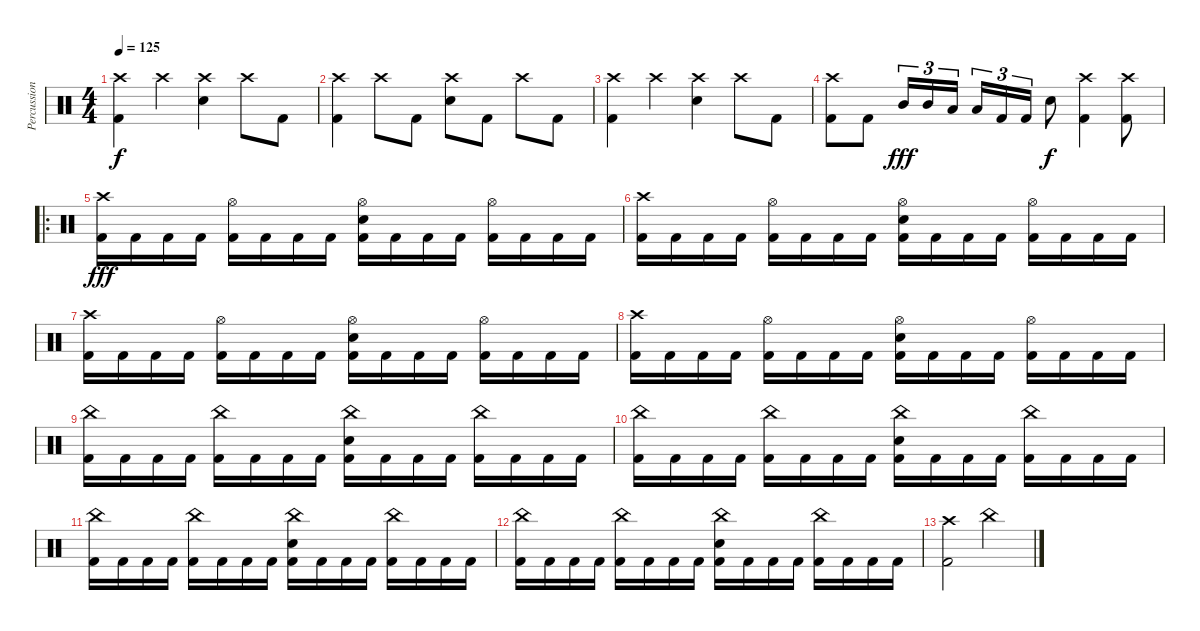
\track ("Percussions" "Percussion") {instrument percussion}
\staff {score}
\articulation defaults
\ts (4 4)
\tempo 125
\clef neutral
\ks c
("Crash high (hit)" "Kick (hit) 2").4{dy f} "Crash high (hit)".4 ("Crash high (hit)" "Electric Snare (hit)").4 "Crash high (hit)".8 "Kick (hit) 2".8 |
("Crash high (hit)" "Kick (hit) 2").4 "Crash high (hit)".8 "Kick (hit) 2".8 ("Crash high (hit)" "Electric Snare (hit)").8 "Kick (hit) 2".8 "Crash high (hit)".8 "Kick (hit) 2".8 |
("Crash high (hit)" "Kick (hit) 2").4 "Crash high (hit)".4 ("Crash high (hit)" "Electric Snare (hit)").4 "Crash high (hit)".8 "Kick (hit) 2".8 |
("Crash high (hit)" "Kick (hit) 2").8 "Kick (hit) 2".8 "Mid Tom (hit)".16{tu (3 2) dy fff} "Mid Tom (hit)".16{tu (3 2)} "Low Tom (hit)".16{tu (3 2) beam splitsecondary} "Low Tom (hit)".16{tu (3 2)} "Kick (hit) 2".16{tu (3 2)} "Kick (hit) 2".16{tu (3 2)} "Electric Snare (hit)".8{dy f} ("Crash high (hit)" "Kick (hit) 2").4 ("Crash high (hit)" "Kick (hit) 2").8 |
\ro
("Crash high (hit)" "Kick (hit) 2").16{dy fff} "Kick (hit) 2".16 "Kick (hit) 2".16 "Kick (hit) 2".16 ("Hi-Hat (open)" "Kick (hit) 2").16 "Kick (hit) 2".16 "Kick (hit) 2".16 "Kick (hit) 2".16 ("Hi-Hat (open)" "Electric Snare (hit)" "Kick (hit) 2").16 "Kick (hit) 2".16 "Kick (hit) 2".16 "Kick (hit) 2".16 ("Hi-Hat (open)" "Kick (hit) 2").16 "Kick (hit) 2".16 "Kick (hit) 2".16 "Kick (hit) 2".16 |
("Crash high (hit)" "Kick (hit) 2").16 "Kick (hit) 2".16 "Kick (hit) 2".16 "Kick (hit) 2".16 ("Hi-Hat (open)" "Kick (hit) 2").16 "Kick (hit) 2".16 "Kick (hit) 2".16 "Kick (hit) 2".16 ("Hi-Hat (open)" "Electric Snare (hit)" "Kick (hit) 2").16 "Kick (hit) 2".16 "Kick (hit) 2".16 "Kick (hit) 2".16 ("Hi-Hat (open)" "Kick (hit) 2").16 "Kick (hit) 2".16 "Kick (hit) 2".16 "Kick (hit) 2".16 |
("Crash high (hit)" "Kick (hit) 2").16 "Kick (hit) 2".16 "Kick (hit) 2".16 "Kick (hit) 2".16 ("Hi-Hat (open)" "Kick (hit) 2").16 "Kick (hit) 2".16 "Kick (hit) 2".16 "Kick (hit) 2".16 ("Hi-Hat (open)" "Electric Snare (hit)" "Kick (hit) 2").16 "Kick (hit) 2".16 "Kick (hit) 2".16 "Kick (hit) 2".16 ("Hi-Hat (open)" "Kick (hit) 2").16 "Kick (hit) 2".16 "Kick (hit) 2".16 "Kick (hit) 2".16 |
("Crash high (hit)" "Kick (hit) 2").16 "Kick (hit) 2".16 "Kick (hit) 2".16 "Kick (hit) 2".16 ("Hi-Hat (open)" "Kick (hit) 2").16 "Kick (hit) 2".16 "Kick (hit) 2".16 "Kick (hit) 2".16 ("Hi-Hat (open)" "Electric Snare (hit)" "Kick (hit) 2").16 "Kick (hit) 2".16 "Kick (hit) 2".16 "Kick (hit) 2".16 ("Hi-Hat (open)" "Kick (hit) 2").16 "Kick (hit) 2".16 "Kick (hit) 2".16 "Kick (hit) 2".16 |
("China (hit)" "Kick (hit) 2").16 "Kick (hit) 2".16 "Kick (hit) 2".16 "Kick (hit) 2".16 ("China (hit)" "Kick (hit) 2").16 "Kick (hit) 2".16 "Kick (hit) 2".16 "Kick (hit) 2".16 ("China (hit)" "Electric Snare (hit)" "Kick (hit) 2").16 "Kick (hit) 2".16 "Kick (hit) 2".16 "Kick (hit) 2".16 ("China (hit)" "Kick (hit) 2").16 "Kick (hit) 2".16 "Kick (hit) 2".16 "Kick (hit) 2".16 |
("China (hit)" "Kick (hit) 2").16 "Kick (hit) 2".16 "Kick (hit) 2".16 "Kick (hit) 2".16 ("China (hit)" "Kick (hit) 2").16 "Kick (hit) 2".16 "Kick (hit) 2".16 "Kick (hit) 2".16 ("China (hit)" "Electric Snare (hit)" "Kick (hit) 2").16 "Kick (hit) 2".16 "Kick (hit) 2".16 "Kick (hit) 2".16 ("China (hit)" "Kick (hit) 2").16 "Kick (hit) 2".16 "Kick (hit) 2".16 "Kick (hit) 2".16 |
("China (hit)" "Kick (hit) 2").16 "Kick (hit) 2".16 "Kick (hit) 2".16 "Kick (hit) 2".16 ("China (hit)" "Kick (hit) 2").16 "Kick (hit) 2".16 "Kick (hit) 2".16 "Kick (hit) 2".16 ("China (hit)" "Electric Snare (hit)" "Kick (hit) 2").16 "Kick (hit) 2".16 "Kick (hit) 2".16 "Kick (hit) 2".16 ("China (hit)" "Kick (hit) 2").16 "Kick (hit) 2".16 "Kick (hit) 2".16 "Kick (hit) 2".16 |
("China (hit)" "Kick (hit) 2").16 "Kick (hit) 2".16 "Kick (hit) 2".16 "Kick (hit) 2".16 ("China (hit)" "Kick (hit) 2").16 "Kick (hit) 2".16 "Kick (hit) 2".16 "Kick (hit) 2".16 ("China (hit)" "Electric Snare (hit)" "Kick (hit) 2").16 "Kick (hit) 2".16 "Kick (hit) 2".16 "Kick (hit) 2".16 ("China (hit)" "Kick (hit) 2").16 "Kick (hit) 2".16 "Kick (hit) 2".16 "Kick (hit) 2".16 |
("Crash high (hit)" "Kick (hit) 2").2 "China (hit)".2
